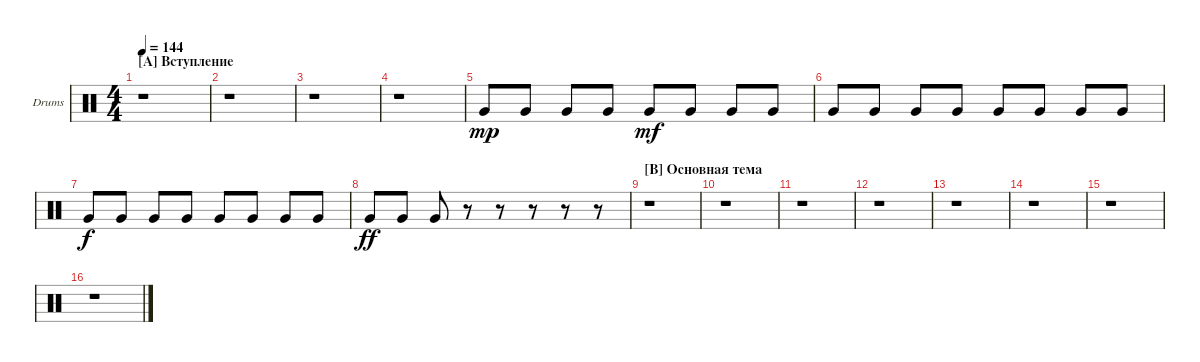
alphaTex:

\defaultSystemsLayout 4
\bracketExtendMode groupsimilarinstruments
\firstSystemTrackNameOrientation horizontal
\otherSystemsTrackNameOrientation horizontal
\track ("Tom" "Drums") {instrument percussion}
\staff {score}
\articulation defaults
\ts (4 4)
\section ("A" "Вступление")
\tempo 144
\clef neutral
\scale
0.472222
\ks c
r.1{dy mp} |
\scale
0.263889 r.1 |
\scale
0.263889 r.1 |
\scale
0.333333 r.1 |
\scale
0.333333 "Very Low Tom (hit)".8 "Very Low Tom (hit)".8 "Very Low Tom (hit)".8 "Very Low Tom (hit)".8 "Very Low Tom (hit)".8{dy mf} "Very Low Tom (hit)".8 "Very Low Tom (hit)".8 "Very Low Tom (hit)".8 |
\scale
0.333333 "Very Low Tom (hit)".8 "Very Low Tom (hit)".8 "Very Low Tom (hit)".8 "Very Low Tom (hit)".8 "Very Low Tom (hit)".8 "Very Low Tom (hit)".8 "Very Low Tom (hit)".8 "Very Low Tom (hit)".8 |
"Very Low Tom (hit)".8{dy f} "Very Low Tom (hit)".8 "Very Low Tom (hit)".8 "Very Low Tom (hit)".8 "Very Low Tom (hit)".8 "Very Low Tom (hit)".8 "Very Low Tom (hit)".8 "Very Low Tom (hit)".8 |
"Very Low Tom (hit)".8{dy ff} "Very Low Tom (hit)".8 "Very Low Tom (hit)".8 r.8 r.8 r.8 r.8 r.8 |
\section ("B" "Основная тема ")
r.1 |
r.1 |
r.1 |
r.1 |
r.1 |
r.1 |
r.1 |
r.1
